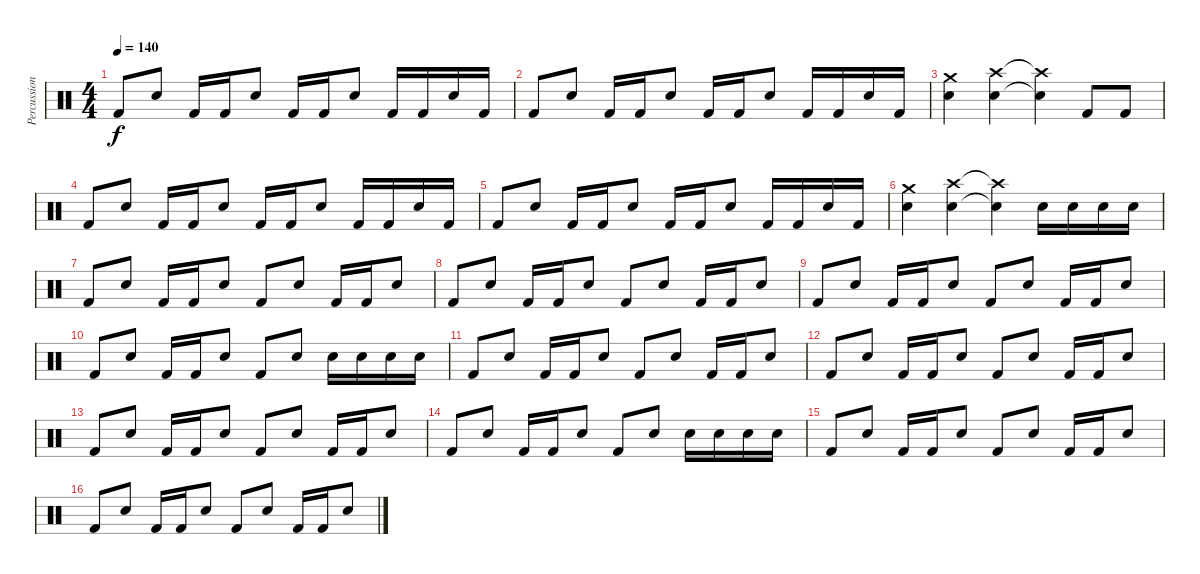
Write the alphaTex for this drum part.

\track ("Percussion" "Percussion") {instrument percussion}
\staff {score}
\articulation defaults
\ts (4 4)
\tempo 140
\clef neutral
\ks c "Kick (hit) 2".8{dy f} "Snare (hit) 2".8 "Kick (hit) 2".16 "Kick (hit) 2".16 "Snare (hit) 2".8 "Kick (hit) 2".16 "Kick (hit) 2".16 "Snare (hit) 2".8 "Kick (hit) 2".16 "Kick (hit) 2".16 "Snare (hit) 2".16 "Kick (hit) 2".16
|
"Kick (hit) 2".8 "Snare (hit) 2".8 "Kick (hit) 2".16 "Kick (hit) 2".16 "Snare (hit) 2".8 "Kick (hit) 2".16 "Kick (hit) 2".16 "Snare (hit) 2".8 "Kick (hit) 2".16 "Kick (hit) 2".16 "Snare (hit) 2".16 "Kick (hit) 2".16 |
("Snare (hit) 2" "Crash medium (hit)").4 ("Snare (hit) 2" "Crash high (hit)").4 ("Snare (hit) 2"{t} "Crash high (hit)"{t}).4 "Kick (hit) 2".8 "Kick (hit) 2".8 |
"Kick (hit) 2".8 "Snare (hit) 2".8 "Kick (hit) 2".16 "Kick (hit) 2".16 "Snare (hit) 2".8 "Kick (hit) 2".16 "Kick (hit) 2".16 "Snare (hit) 2".8 "Kick (hit) 2".16 "Kick (hit) 2".16 "Snare (hit) 2".16 "Kick (hit) 2".16 |
"Kick (hit) 2".8 "Snare (hit) 2".8 "Kick (hit) 2".16 "Kick (hit) 2".16 "Snare (hit) 2".8 "Kick (hit) 2".16 "Kick (hit) 2".16 "Snare (hit) 2".8 "Kick (hit) 2".16 "Kick (hit) 2".16 "Snare (hit) 2".16 "Kick (hit) 2".16 |
("Snare (hit) 2" "Crash medium (hit)").4 ("Snare (hit) 2" "Crash high (hit)").4 ("Snare (hit) 2"{t} "Crash high (hit)"{t}).4 "Snare (hit) 2".16 "Snare (hit) 2".16 "Snare (hit) 2".16 "Snare (hit) 2".16 |
"Kick (hit) 2".8 "Snare (hit) 2".8 "Kick (hit) 2".16 "Kick (hit) 2".16 "Snare (hit) 2".8 "Kick (hit) 2".8 "Snare (hit) 2".8 "Kick (hit) 2".16 "Kick (hit) 2".16 "Snare (hit) 2".8 |
"Kick (hit) 2".8 "Snare (hit) 2".8 "Kick (hit) 2".16 "Kick (hit) 2".16 "Snare (hit) 2".8 "Kick (hit) 2".8 "Snare (hit) 2".8 "Kick (hit) 2".16 "Kick (hit) 2".16 "Snare (hit) 2".8 |
"Kick (hit) 2".8 "Snare (hit) 2".8 "Kick (hit) 2".16 "Kick (hit) 2".16 "Snare (hit) 2".8 "Kick (hit) 2".8 "Snare (hit) 2".8 "Kick (hit) 2".16 "Kick (hit) 2".16 "Snare (hit) 2".8 |
"Kick (hit) 2".8 "Snare (hit) 2".8 "Kick (hit) 2".16 "Kick (hit) 2".16 "Snare (hit) 2".8 "Kick (hit) 2".8 "Snare (hit) 2".8 "Snare (hit) 2".16 "Snare (hit) 2".16 "Snare (hit) 2".16 "Snare (hit) 2".16 |
"Kick (hit) 2".8 "Snare (hit) 2".8 "Kick (hit) 2".16 "Kick (hit) 2".16 "Snare (hit) 2".8 "Kick (hit) 2".8 "Snare (hit) 2".8 "Kick (hit) 2".16 "Kick (hit) 2".16 "Snare (hit) 2".8 |
"Kick (hit) 2".8 "Snare (hit) 2".8 "Kick (hit) 2".16 "Kick (hit) 2".16 "Snare (hit) 2".8 "Kick (hit) 2".8 "Snare (hit) 2".8 "Kick (hit) 2".16 "Kick (hit) 2".16 "Snare (hit) 2".8 |
"Kick (hit) 2".8 "Snare (hit) 2".8 "Kick (hit) 2".16 "Kick (hit) 2".16 "Snare (hit) 2".8 "Kick (hit) 2".8 "Snare (hit) 2".8 "Kick (hit) 2".16 "Kick (hit) 2".16 "Snare (hit) 2".8 |
"Kick (hit) 2".8 "Snare (hit) 2".8 "Kick (hit) 2".16 "Kick (hit) 2".16 "Snare (hit) 2".8 "Kick (hit) 2".8 "Snare (hit) 2".8 "Snare (hit) 2".16 "Snare (hit) 2".16 "Snare (hit) 2".16 "Snare (hit) 2".16 |
"Kick (hit) 2".8 "Snare (hit) 2".8 "Kick (hit) 2".16 "Kick (hit) 2".16 "Snare (hit) 2".8 "Kick (hit) 2".8 "Snare (hit) 2".8 "Kick (hit) 2".16 "Kick (hit) 2".16 "Snare (hit) 2".8 |
"Kick (hit) 2".8 "Snare (hit) 2".8 "Kick (hit) 2".16 "Kick (hit) 2".16 "Snare (hit) 2".8 "Kick (hit) 2".8 "Snare (hit) 2".8 "Kick (hit) 2".16 "Kick (hit) 2".16 "Snare (hit) 2".8
